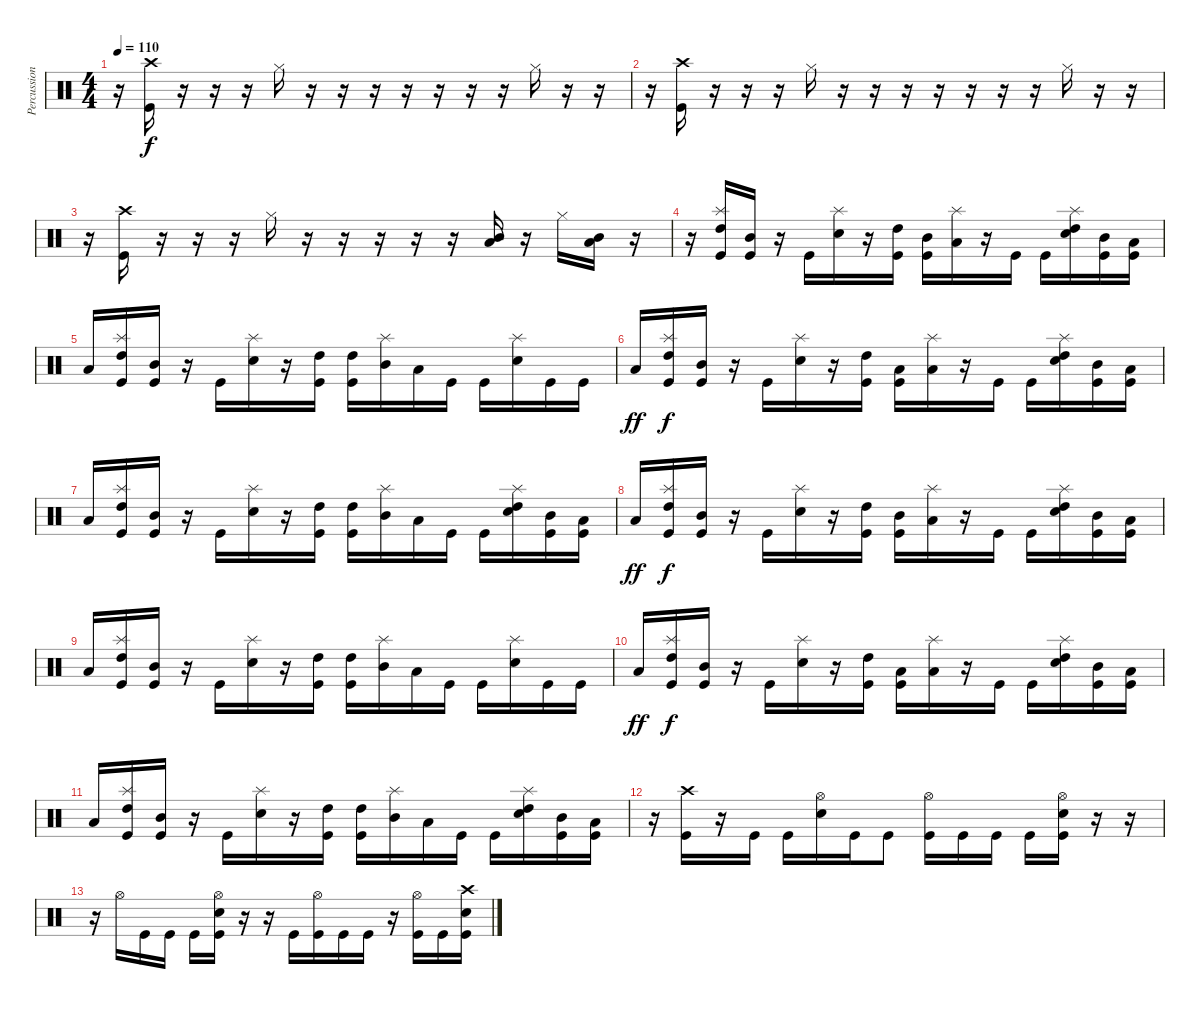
\track ("Percussion" "Percussion") {instrument percussion}
\staff {score}
\articulation defaults
\ts (4 4)
\tempo 110
\clef neutral
\ks c
r.16{dy f} ("Crash high (hit)" "Kick (hit)").16 r.16 r.16 r.16 "Hi-Hat (closed)".16 r.16 r.16 r.16 r.16 r.16 r.16 r.16 "Hi-Hat (closed)".16 r.16 r.16 |
r.16 ("Crash high (hit)" "Kick (hit)").16 r.16 r.16 r.16 "Hi-Hat (closed)".16 r.16 r.16 r.16 r.16 r.16 r.16 r.16 "Hi-Hat (closed)".16 r.16 r.16 |
r.16 ("Crash high (hit)" "Kick (hit)").16 r.16 r.16 r.16 "Hi-Hat (closed)".16 r.16 r.16 r.16 r.16 r.16 ("Mid Tom (hit)" "Low Floor Tom (hit)").16 r.16 "Hi-Hat (closed)".16 ("Mid Tom (hit)" "Low Floor Tom (hit)").16 r.16 |
r.16 ("Splash (hit)" "High Tom (hit)" "Kick (hit)").16 ("Mid Tom (hit)" "Kick (hit)").16 r.16 "Kick (hit)".16 ("Splash (hit)" "Electric Snare (hit)").16 r.16 ("High Tom (hit)" "Kick (hit)").16 ("Mid Tom (hit)" "Kick (hit)").16 ("Splash (hit)" "Low Tom (hit)").16 r.16 "Kick (hit)".16 "Kick (hit)".16 ("Splash (hit)" "High Tom (hit)" "Electric Snare (hit)").16 ("Mid Tom (hit)" "Kick (hit)").16 ("Low Tom (hit)" "Kick (hit)").16 |
"Low Floor Tom (hit)".16 ("Splash (hit)" "High Tom (hit)" "Kick (hit)").16 ("Mid Tom (hit)" "Kick (hit)").16 r.16 "Kick (hit)".16 ("Splash (hit)" "Electric Snare (hit)").16 r.16 ("High Tom (hit)" "Kick (hit)").16 ("High Tom (hit)" "Kick (hit)").16 ("Splash (hit)" "Mid Tom (hit)").16 "Low Floor Tom (hit)".16 "Kick (hit)".16 "Kick (hit)".16 ("Splash (hit)" "Electric Snare (hit)").16 "Kick (hit)".16 "Kick (hit)".16 |
"Low Floor Tom (hit)".16{dy ff} ("Splash (hit)" "High Tom (hit)" "Kick (hit)").16{dy f} ("Mid Tom (hit)" "Kick (hit)").16 r.16 "Kick (hit)".16 ("Splash (hit)" "Electric Snare (hit)").16 r.16 ("High Tom (hit)" "Kick (hit)").16 ("Low Tom (hit)" "Kick (hit)").16 ("Splash (hit)" "Low Floor Tom (hit)").16 r.16 "Kick (hit)".16 "Kick (hit)".16 ("Splash (hit)" "High Tom (hit)" "Electric Snare (hit)").16 ("Mid Tom (hit)" "Kick (hit)").16 ("Low Tom (hit)" "Kick (hit)").16 |
"Low Floor Tom (hit)".16 ("Splash (hit)" "High Tom (hit)" "Kick (hit)").16 ("Mid Tom (hit)" "Kick (hit)").16 r.16 "Kick (hit)".16 ("Splash (hit)" "Electric Snare (hit)").16 r.16 ("High Tom (hit)" "Kick (hit)").16 ("High Tom (hit)" "Kick (hit)").16 ("Splash (hit)" "Mid Tom (hit)").16 "Low Floor Tom (hit)".16 "Kick (hit)".16 "Kick (hit)".16 ("Splash (hit)" "High Tom (hit)" "Electric Snare (hit)").16 ("Mid Tom (hit)" "Kick (hit)").16 ("Low Tom (hit)" "Kick (hit)").16 |
"Low Floor Tom (hit)".16{dy ff} ("Splash (hit)" "High Tom (hit)" "Kick (hit)").16{dy f} ("Mid Tom (hit)" "Kick (hit)").16 r.16 "Kick (hit)".16 ("Splash (hit)" "Electric Snare (hit)").16 r.16 ("High Tom (hit)" "Kick (hit)").16 ("Mid Tom (hit)" "Kick (hit)").16 ("Splash (hit)" "Low Tom (hit)").16 r.16 "Kick (hit)".16 "Kick (hit)".16 ("Splash (hit)" "High Tom (hit)" "Electric Snare (hit)").16 ("Mid Tom (hit)" "Kick (hit)").16 ("Low Tom (hit)" "Kick (hit)").16 |
"Low Floor Tom (hit)".16 ("Splash (hit)" "High Tom (hit)" "Kick (hit)").16 ("Mid Tom (hit)" "Kick (hit)").16 r.16 "Kick (hit)".16 ("Splash (hit)" "Electric Snare (hit)").16 r.16 ("High Tom (hit)" "Kick (hit)").16 ("High Tom (hit)" "Kick (hit)").16 ("Splash (hit)" "Mid Tom (hit)").16 "Low Floor Tom (hit)".16 "Kick (hit)".16 "Kick (hit)".16 ("Splash (hit)" "Electric Snare (hit)").16 "Kick (hit)".16 "Kick (hit)".16 |
"Low Floor Tom (hit)".16{dy ff} ("Splash (hit)" "High Tom (hit)" "Kick (hit)").16{dy f} ("Mid Tom (hit)" "Kick (hit)").16 r.16 "Kick (hit)".16 ("Splash (hit)" "Electric Snare (hit)").16 r.16 ("High Tom (hit)" "Kick (hit)").16 ("Low Tom (hit)" "Kick (hit)").16 ("Splash (hit)" "Low Floor Tom (hit)").16 r.16 "Kick (hit)".16 "Kick (hit)".16 ("Splash (hit)" "High Tom (hit)" "Electric Snare (hit)").16 ("Mid Tom (hit)" "Kick (hit)").16 ("Low Tom (hit)" "Kick (hit)").16 |
"Low Floor Tom (hit)".16 ("Splash (hit)" "High Tom (hit)" "Kick (hit)").16 ("Mid Tom (hit)" "Kick (hit)").16 r.16 "Kick (hit)".16 ("Splash (hit)" "Electric Snare (hit)").16 r.16 ("High Tom (hit)" "Kick (hit)").16 ("High Tom (hit)" "Kick (hit)").16 ("Splash (hit)" "Mid Tom (hit)").16 "Low Floor Tom (hit)".16 "Kick (hit)".16 "Kick (hit)".16 ("Splash (hit)" "High Tom (hit)" "Electric Snare (hit)").16 ("Mid Tom (hit)" "Kick (hit)").16 ("Low Tom (hit)" "Kick (hit)").16 |
r.16 ("Crash high (hit)" "Kick (hit)").16 r.16 "Kick (hit)".16 "Kick (hit)".16 ("Hi-Hat (open)" "Electric Snare (hit)").16 "Kick (hit)".16 "Kick (hit)".8 ("Hi-Hat (open)" "Kick (hit)").16 "Kick (hit)".16 "Kick (hit)".16 "Kick (hit)".16 ("Hi-Hat (open)" "Electric Snare (hit)" "Kick (hit)").16 r.16 r.16 |
r.16 "Hi-Hat (open)".16 "Kick (hit)".16 "Kick (hit)".16 "Kick (hit)".16 ("Hi-Hat (open)" "Electric Snare (hit)" "Kick (hit)").16 r.16 r.16 "Kick (hit)".16 ("Hi-Hat (open)" "Kick (hit)").16 "Kick (hit)".16 "Kick (hit)".16 r.16 ("Hi-Hat (open)" "Kick (hit)").16 "Kick (hit)".16 ("Crash high (hit)" "Electric Snare (hit)" "Kick (hit)").16
